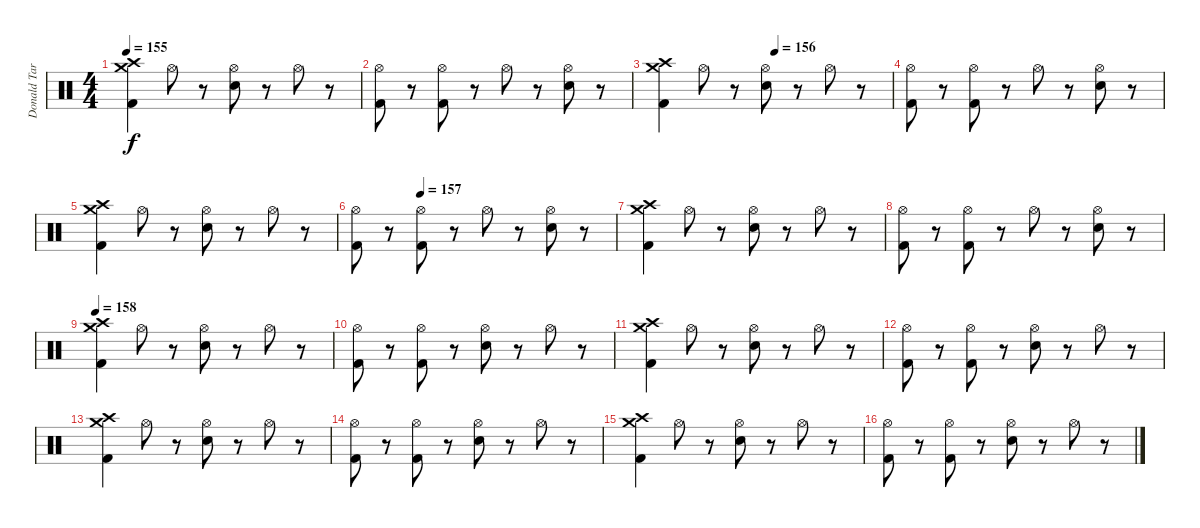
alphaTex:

\track ("Donald Tardy (Drums)" "Donald Tar") {instrument percussion}
\staff {score}
\articulation defaults
\ts (4 4)
\tempo 155
\clef neutral
\ks c
("Kick (hit) 2" "Crash medium (hit)" "Crash high (hit)").4{dy f} "Hi-Hat (open)".8 r.8 ("Electric Snare (hit)" "Hi-Hat (open)").8 r.8 "Hi-Hat (open)".8 r.8 |
("Kick (hit) 2" "Hi-Hat (open)").8 r.8 ("Kick (hit) 2" "Hi-Hat (open)").8 r.8 "Hi-Hat (open)".8 r.8 ("Electric Snare (hit)" "Hi-Hat (open)").8 r.8 |
\tempo (156 0.5)
("Kick (hit) 2" "Crash medium (hit)" "Crash high (hit)").4 "Hi-Hat (open)".8 r.8 ("Electric Snare (hit)" "Hi-Hat (open)").8 r.8 "Hi-Hat (open)".8 r.8 |
("Kick (hit) 2" "Hi-Hat (open)").8 r.8 ("Kick (hit) 2" "Hi-Hat (open)").8 r.8 "Hi-Hat (open)".8 r.8 ("Electric Snare (hit)" "Hi-Hat (open)").8 r.8 |
("Kick (hit) 2" "Crash medium (hit)" "Crash high (hit)").4 "Hi-Hat (open)".8 r.8 ("Electric Snare (hit)" "Hi-Hat (open)").8 r.8 "Hi-Hat (open)".8 r.8 |
\tempo (157 0.25)
("Kick (hit) 2" "Hi-Hat (open)").8 r.8 ("Kick (hit) 2" "Hi-Hat (open)").8 r.8 "Hi-Hat (open)".8 r.8 ("Electric Snare (hit)" "Hi-Hat (open)").8 r.8 |
("Kick (hit) 2" "Crash medium (hit)" "Crash high (hit)").4 "Hi-Hat (open)".8 r.8 ("Electric Snare (hit)" "Hi-Hat (open)").8 r.8 "Hi-Hat (open)".8 r.8 |
("Kick (hit) 2" "Hi-Hat (open)").8 r.8 ("Kick (hit) 2" "Hi-Hat (open)").8 r.8 "Hi-Hat (open)".8 r.8 ("Electric Snare (hit)" "Hi-Hat (open)").8 r.8 |
\tempo 158
("Kick (hit) 2" "Crash medium (hit)" "Crash high (hit)").4 "Hi-Hat (open)".8 r.8 ("Electric Snare (hit)" "Hi-Hat (open)").8 r.8 "Hi-Hat (open)".8 r.8 |
("Kick (hit) 2" "Hi-Hat (open)").8 r.8 ("Kick (hit) 2" "Hi-Hat (open)").8 r.8 ("Electric Snare (hit)" "Hi-Hat (open)").8 r.8 "Hi-Hat (open)".8 r.8 |
("Kick (hit) 2" "Crash medium (hit)" "Crash high (hit)").4 "Hi-Hat (open)".8 r.8 ("Electric Snare (hit)" "Hi-Hat (open)").8 r.8 "Hi-Hat (open)".8 r.8 |
("Kick (hit) 2" "Hi-Hat (open)").8 r.8 ("Kick (hit) 2" "Hi-Hat (open)").8 r.8 ("Electric Snare (hit)" "Hi-Hat (open)").8 r.8 "Hi-Hat (open)".8 r.8 |
("Kick (hit) 2" "Crash medium (hit)" "Crash high (hit)").4 "Hi-Hat (open)".8 r.8 ("Electric Snare (hit)" "Hi-Hat (open)").8 r.8 "Hi-Hat (open)".8 r.8 |
("Kick (hit) 2" "Hi-Hat (open)").8 r.8 ("Kick (hit) 2" "Hi-Hat (open)").8 r.8 ("Electric Snare (hit)" "Hi-Hat (open)").8 r.8 "Hi-Hat (open)".8 r.8 |
("Kick (hit) 2" "Crash medium (hit)" "Crash high (hit)").4 "Hi-Hat (open)".8 r.8 ("Electric Snare (hit)" "Hi-Hat (open)").8 r.8 "Hi-Hat (open)".8 r.8 |
("Kick (hit) 2" "Hi-Hat (open)").8 r.8 ("Kick (hit) 2" "Hi-Hat (open)").8 r.8 ("Electric Snare (hit)" "Hi-Hat (open)").8 r.8 "Hi-Hat (open)".8 r.8
